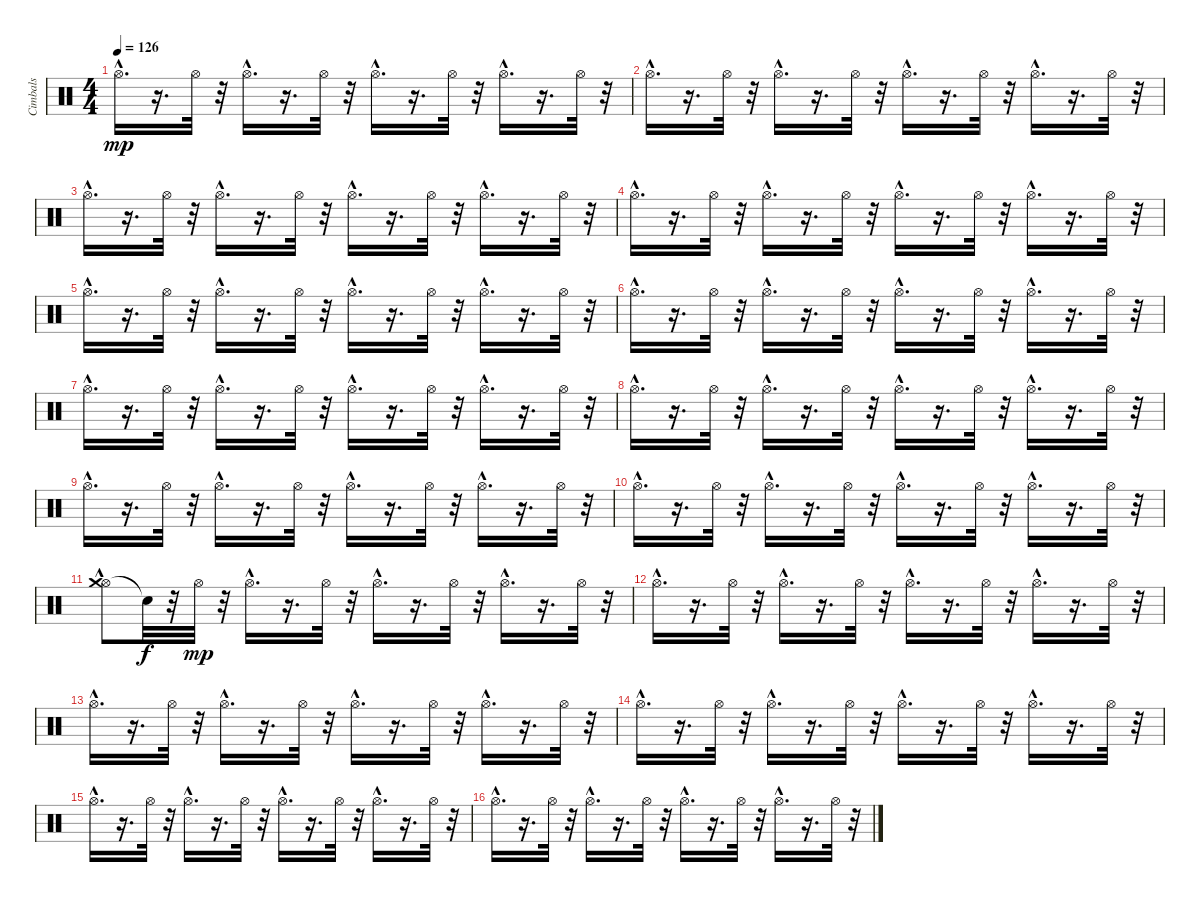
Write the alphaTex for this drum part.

\track ("Cimbals" "Cimbals") {instrument percussion}
\staff {score}
\articulation defaults
\ts (4 4)
\tempo 126
\clef neutral
\ks c "Hi-Hat (open)"{hac}.16{d dy mp}
r.16{d} "Hi-Hat (open)".32 r.32 "Hi-Hat (open)"{hac}.16{d} r.16{d} "Hi-Hat (open)".32 r.32 "Hi-Hat (open)"{hac}.16{d} r.16{d} "Hi-Hat (open)".32 r.32 "Hi-Hat (open)"{hac}.16{d} r.16{d} "Hi-Hat (open)".32 r.32 |
"Hi-Hat (open)"{hac}.16{d} r.16{d} "Hi-Hat (open)".32 r.32 "Hi-Hat (open)"{hac}.16{d} r.16{d} "Hi-Hat (open)".32 r.32 "Hi-Hat (open)"{hac}.16{d} r.16{d} "Hi-Hat (open)".32 r.32 "Hi-Hat (open)"{hac}.16{d} r.16{d} "Hi-Hat (open)".32 r.32 |
"Hi-Hat (open)"{hac}.16{d} r.16{d} "Hi-Hat (open)".32 r.32 "Hi-Hat (open)"{hac}.16{d} r.16{d} "Hi-Hat (open)".32 r.32 "Hi-Hat (open)"{hac}.16{d} r.16{d} "Hi-Hat (open)".32 r.32 "Hi-Hat (open)"{hac}.16{d} r.16{d} "Hi-Hat (open)".32 r.32 |
"Hi-Hat (open)"{hac}.16{d} r.16{d} "Hi-Hat (open)".32 r.32 "Hi-Hat (open)"{hac}.16{d} r.16{d} "Hi-Hat (open)".32 r.32 "Hi-Hat (open)"{hac}.16{d} r.16{d} "Hi-Hat (open)".32 r.32 "Hi-Hat (open)"{hac}.16{d} r.16{d} "Hi-Hat (open)".32 r.32 |
"Hi-Hat (open)"{hac}.16{d} r.16{d} "Hi-Hat (open)".32 r.32 "Hi-Hat (open)"{hac}.16{d} r.16{d} "Hi-Hat (open)".32 r.32 "Hi-Hat (open)"{hac}.16{d} r.16{d} "Hi-Hat (open)".32 r.32 "Hi-Hat (open)"{hac}.16{d} r.16{d} "Hi-Hat (open)".32 r.32 |
"Hi-Hat (open)"{hac}.16{d} r.16{d} "Hi-Hat (open)".32 r.32 "Hi-Hat (open)"{hac}.16{d} r.16{d} "Hi-Hat (open)".32 r.32 "Hi-Hat (open)"{hac}.16{d} r.16{d} "Hi-Hat (open)".32 r.32 "Hi-Hat (open)"{hac}.16{d} r.16{d} "Hi-Hat (open)".32 r.32 |
"Hi-Hat (open)"{hac}.16{d} r.16{d} "Hi-Hat (open)".32 r.32 "Hi-Hat (open)"{hac}.16{d} r.16{d} "Hi-Hat (open)".32 r.32 "Hi-Hat (open)"{hac}.16{d} r.16{d} "Hi-Hat (open)".32 r.32 "Hi-Hat (open)"{hac}.16{d} r.16{d} "Hi-Hat (open)".32 r.32 |
"Hi-Hat (open)"{hac}.16{d} r.16{d} "Hi-Hat (open)".32 r.32 "Hi-Hat (open)"{hac}.16{d} r.16{d} "Hi-Hat (open)".32 r.32 "Hi-Hat (open)"{hac}.16{d} r.16{d} "Hi-Hat (open)".32 r.32 "Hi-Hat (open)"{hac}.16{d} r.16{d} "Hi-Hat (open)".32 r.32 |
"Hi-Hat (open)"{hac}.16{d} r.16{d} "Hi-Hat (open)".32 r.32 "Hi-Hat (open)"{hac}.16{d} r.16{d} "Hi-Hat (open)".32 r.32 "Hi-Hat (open)"{hac}.16{d} r.16{d} "Hi-Hat (open)".32 r.32 "Hi-Hat (open)"{hac}.16{d} r.16{d} "Hi-Hat (open)".32 r.32 |
"Hi-Hat (open)"{hac}.16{d} r.16{d} "Hi-Hat (open)".32 r.32 "Hi-Hat (open)"{hac}.16{d} r.16{d} "Hi-Hat (open)".32 r.32 "Hi-Hat (open)"{hac}.16{d} r.16{d} "Hi-Hat (open)".32 r.32 "Hi-Hat (open)"{hac}.16{d} r.16{d} "Hi-Hat (open)".32 r.32 |
("Hi-Hat (open)"{hac} "Crash medium (hit)").8 "Snare (hit)"{t}.32{dy f} r.32 "Hi-Hat (open)".32{dy mp} r.32 "Hi-Hat (open)"{hac}.16{d} r.16{d} "Hi-Hat (open)".32 r.32 "Hi-Hat (open)"{hac}.16{d} r.16{d} "Hi-Hat (open)".32 r.32 "Hi-Hat (open)"{hac}.16{d} r.16{d} "Hi-Hat (open)".32 r.32 |
"Hi-Hat (open)"{hac}.16{d} r.16{d} "Hi-Hat (open)".32 r.32 "Hi-Hat (open)"{hac}.16{d} r.16{d} "Hi-Hat (open)".32 r.32 "Hi-Hat (open)"{hac}.16{d} r.16{d} "Hi-Hat (open)".32 r.32 "Hi-Hat (open)"{hac}.16{d} r.16{d} "Hi-Hat (open)".32 r.32 |
"Hi-Hat (open)"{hac}.16{d} r.16{d} "Hi-Hat (open)".32 r.32 "Hi-Hat (open)"{hac}.16{d} r.16{d} "Hi-Hat (open)".32 r.32 "Hi-Hat (open)"{hac}.16{d} r.16{d} "Hi-Hat (open)".32 r.32 "Hi-Hat (open)"{hac}.16{d} r.16{d} "Hi-Hat (open)".32 r.32 |
"Hi-Hat (open)"{hac}.16{d} r.16{d} "Hi-Hat (open)".32 r.32 "Hi-Hat (open)"{hac}.16{d} r.16{d} "Hi-Hat (open)".32 r.32 "Hi-Hat (open)"{hac}.16{d} r.16{d} "Hi-Hat (open)".32 r.32 "Hi-Hat (open)"{hac}.16{d} r.16{d} "Hi-Hat (open)".32 r.32 |
"Hi-Hat (open)"{hac}.16{d} r.16{d} "Hi-Hat (open)".32 r.32 "Hi-Hat (open)"{hac}.16{d} r.16{d} "Hi-Hat (open)".32 r.32 "Hi-Hat (open)"{hac}.16{d} r.16{d} "Hi-Hat (open)".32 r.32 "Hi-Hat (open)"{hac}.16{d} r.16{d} "Hi-Hat (open)".32 r.32 |
"Hi-Hat (open)"{hac}.16{d} r.16{d} "Hi-Hat (open)".32 r.32 "Hi-Hat (open)"{hac}.16{d} r.16{d} "Hi-Hat (open)".32 r.32 "Hi-Hat (open)"{hac}.16{d} r.16{d} "Hi-Hat (open)".32 r.32 "Hi-Hat (open)"{hac}.16{d} r.16{d} "Hi-Hat (open)".32 r.32
